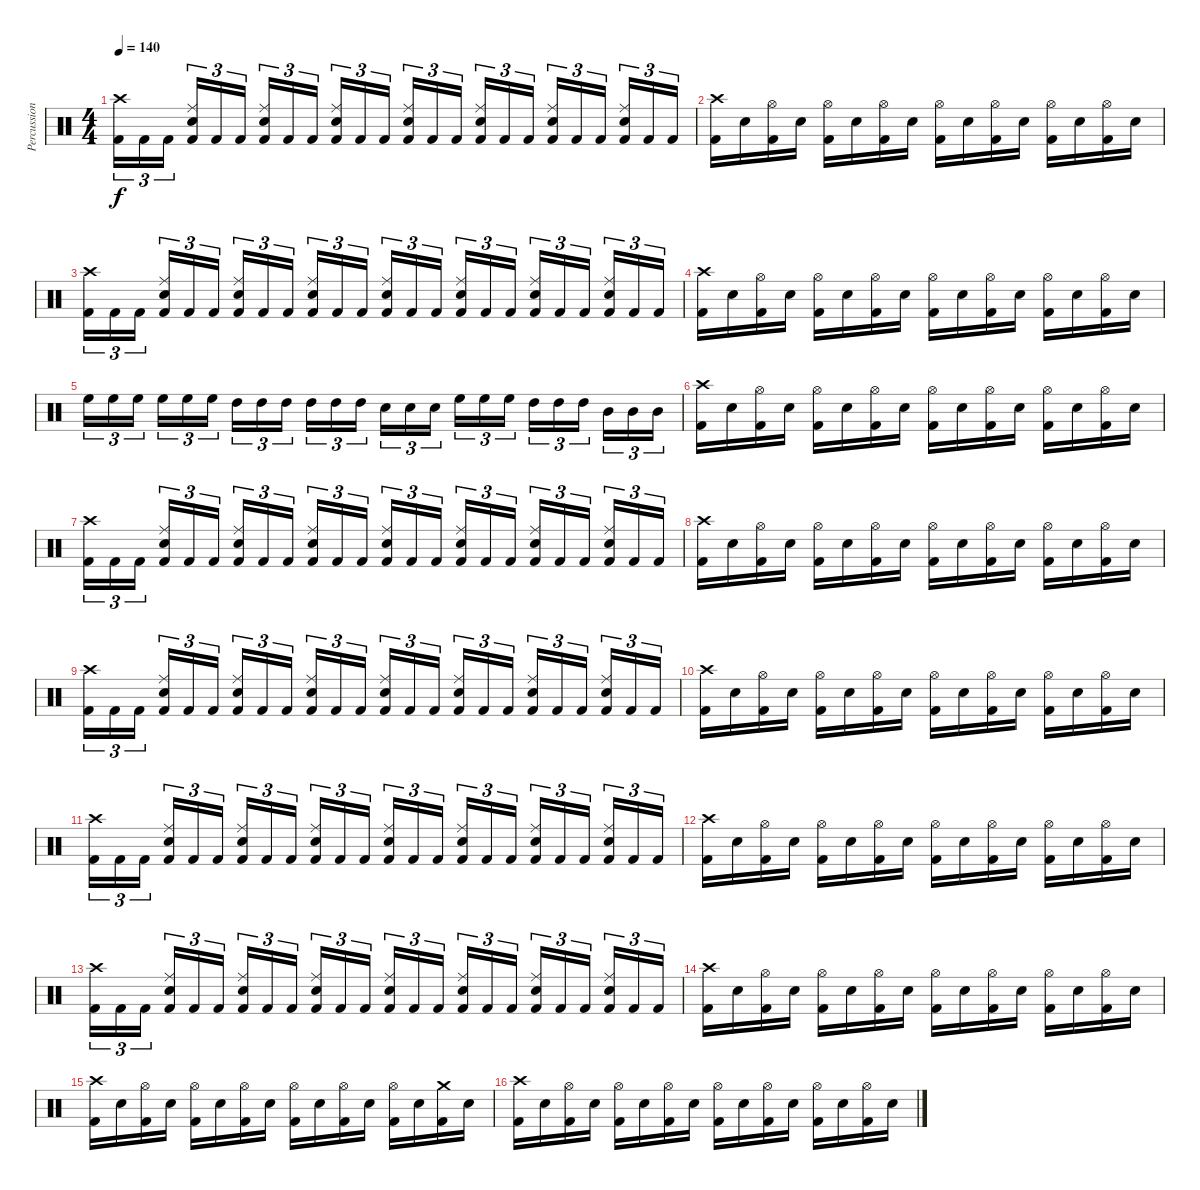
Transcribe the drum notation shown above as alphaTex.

\track ("Percussion" "Percussion") {instrument percussion}
\staff {score}
\articulation defaults
\ts (4 4)
\tempo 140
\clef neutral
\ks c
("Crash high (hit)" "Kick (hit) 2").16{tu (3 2) dy f} "Kick (hit) 2".16{tu (3 2)} "Kick (hit) 2".16{tu (3 2)} ("Ride (middle)" "Electric Snare (hit)" "Kick (hit) 2").16{tu (3 2)} "Kick (hit) 2".16{tu (3 2)} "Kick (hit) 2".16{tu (3 2)} ("Ride (middle)" "Electric Snare (hit)" "Kick (hit) 2").16{tu (3 2)} "Kick (hit) 2".16{tu (3 2)} "Kick (hit) 2".16{tu (3 2)} ("Ride (middle)" "Electric Snare (hit)" "Kick (hit) 2").16{tu (3 2)} "Kick (hit) 2".16{tu (3 2)} "Kick (hit) 2".16{tu (3 2)} ("Ride (middle)" "Electric Snare (hit)" "Kick (hit) 2").16{tu (3 2)} "Kick (hit) 2".16{tu (3 2)} "Kick (hit) 2".16{tu (3 2)} ("Ride (middle)" "Electric Snare (hit)" "Kick (hit) 2").16{tu (3 2)} "Kick (hit) 2".16{tu (3 2)} "Kick (hit) 2".16{tu (3 2)} ("Ride (middle)" "Electric Snare (hit)" "Kick (hit) 2").16{tu (3 2)} "Kick (hit) 2".16{tu (3 2)} "Kick (hit) 2".16{tu (3 2)} ("Ride (middle)" "Electric Snare (hit)" "Kick (hit) 2").16{tu (3 2)} "Kick (hit) 2".16{tu (3 2)} "Kick (hit) 2".16{tu (3 2)} |
("Crash high (hit)" "Kick (hit) 2").16 "Electric Snare (hit)".16 ("Hi-Hat (open)" "Kick (hit) 2").16 "Electric Snare (hit)".16 ("Hi-Hat (open)" "Kick (hit) 2").16 "Electric Snare (hit)".16 ("Hi-Hat (open)" "Kick (hit) 2").16 "Electric Snare (hit)".16 ("Hi-Hat (open)" "Kick (hit) 2").16 "Electric Snare (hit)".16 ("Hi-Hat (open)" "Kick (hit) 2").16 "Electric Snare (hit)".16 ("Hi-Hat (open)" "Kick (hit) 2").16 "Electric Snare (hit)".16 ("Hi-Hat (open)" "Kick (hit) 2").16 "Electric Snare (hit)".16 |
("Crash high (hit)" "Kick (hit) 2").16{tu (3 2)} "Kick (hit) 2".16{tu (3 2)} "Kick (hit) 2".16{tu (3 2)} ("Ride (middle)" "Electric Snare (hit)" "Kick (hit) 2").16{tu (3 2)} "Kick (hit) 2".16{tu (3 2)} "Kick (hit) 2".16{tu (3 2)} ("Ride (middle)" "Electric Snare (hit)" "Kick (hit) 2").16{tu (3 2)} "Kick (hit) 2".16{tu (3 2)} "Kick (hit) 2".16{tu (3 2)} ("Ride (middle)" "Electric Snare (hit)" "Kick (hit) 2").16{tu (3 2)} "Kick (hit) 2".16{tu (3 2)} "Kick (hit) 2".16{tu (3 2)} ("Ride (middle)" "Electric Snare (hit)" "Kick (hit) 2").16{tu (3 2)} "Kick (hit) 2".16{tu (3 2)} "Kick (hit) 2".16{tu (3 2)} ("Ride (middle)" "Electric Snare (hit)" "Kick (hit) 2").16{tu (3 2)} "Kick (hit) 2".16{tu (3 2)} "Kick (hit) 2".16{tu (3 2)} ("Ride (middle)" "Electric Snare (hit)" "Kick (hit) 2").16{tu (3 2)} "Kick (hit) 2".16{tu (3 2)} "Kick (hit) 2".16{tu (3 2)} ("Ride (middle)" "Electric Snare (hit)" "Kick (hit) 2").16{tu (3 2)} "Kick (hit) 2".16{tu (3 2)} "Kick (hit) 2".16{tu (3 2)} |
("Crash high (hit)" "Kick (hit) 2").16 "Electric Snare (hit)".16 ("Hi-Hat (open)" "Kick (hit) 2").16 "Electric Snare (hit)".16 ("Hi-Hat (open)" "Kick (hit) 2").16 "Electric Snare (hit)".16 ("Hi-Hat (open)" "Kick (hit) 2").16 "Electric Snare (hit)".16 ("Hi-Hat (open)" "Kick (hit) 2").16 "Electric Snare (hit)".16 ("Hi-Hat (open)" "Kick (hit) 2").16 "Electric Snare (hit)".16 ("Hi-Hat (open)" "Kick (hit) 2").16 "Electric Snare (hit)".16 ("Hi-Hat (open)" "Kick (hit) 2").16 "Electric Snare (hit)".16 |
"High Floor Tom (hit)".16{tu (3 2)} "High Floor Tom (hit)".16{tu (3 2)} "High Floor Tom (hit)".16{tu (3 2)} "High Floor Tom (hit)".16{tu (3 2)} "High Floor Tom (hit)".16{tu (3 2)} "High Floor Tom (hit)".16{tu (3 2)} "High Tom (hit)".16{tu (3 2)} "High Tom (hit)".16{tu (3 2)} "High Tom (hit)".16{tu (3 2)} "High Tom (hit)".16{tu (3 2)} "High Tom (hit)".16{tu (3 2)} "High Tom (hit)".16{tu (3 2)} "Electric Snare (hit)".16{tu (3 2)} "Electric Snare (hit)".16{tu (3 2)} "Electric Snare (hit)".16{tu (3 2)} "High Floor Tom (hit)".16{tu (3 2)} "High Floor Tom (hit)".16{tu (3 2)} "High Floor Tom (hit)".16{tu (3 2)} "High Tom (hit)".16{tu (3 2)} "High Tom (hit)".16{tu (3 2)} "High Tom (hit)".16{tu (3 2)} "Mid Tom (hit)".16{tu (3 2)} "Mid Tom (hit)".16{tu (3 2)} "Mid Tom (hit)".16{tu (3 2)} |
("Crash high (hit)" "Kick (hit) 2").16 "Electric Snare (hit)".16 ("Hi-Hat (open)" "Kick (hit) 2").16 "Electric Snare (hit)".16 ("Hi-Hat (open)" "Kick (hit) 2").16 "Electric Snare (hit)".16 ("Hi-Hat (open)" "Kick (hit) 2").16 "Electric Snare (hit)".16 ("Hi-Hat (open)" "Kick (hit) 2").16 "Electric Snare (hit)".16 ("Hi-Hat (open)" "Kick (hit) 2").16 "Electric Snare (hit)".16 ("Hi-Hat (open)" "Kick (hit) 2").16 "Electric Snare (hit)".16 ("Hi-Hat (open)" "Kick (hit) 2").16 "Electric Snare (hit)".16 |
("Crash high (hit)" "Kick (hit) 2").16{tu (3 2)} "Kick (hit) 2".16{tu (3 2)} "Kick (hit) 2".16{tu (3 2)} ("Ride (middle)" "Electric Snare (hit)" "Kick (hit) 2").16{tu (3 2)} "Kick (hit) 2".16{tu (3 2)} "Kick (hit) 2".16{tu (3 2)} ("Ride (middle)" "Electric Snare (hit)" "Kick (hit) 2").16{tu (3 2)} "Kick (hit) 2".16{tu (3 2)} "Kick (hit) 2".16{tu (3 2)} ("Ride (middle)" "Electric Snare (hit)" "Kick (hit) 2").16{tu (3 2)} "Kick (hit) 2".16{tu (3 2)} "Kick (hit) 2".16{tu (3 2)} ("Ride (middle)" "Electric Snare (hit)" "Kick (hit) 2").16{tu (3 2)} "Kick (hit) 2".16{tu (3 2)} "Kick (hit) 2".16{tu (3 2)} ("Ride (middle)" "Electric Snare (hit)" "Kick (hit) 2").16{tu (3 2)} "Kick (hit) 2".16{tu (3 2)} "Kick (hit) 2".16{tu (3 2)} ("Ride (middle)" "Electric Snare (hit)" "Kick (hit) 2").16{tu (3 2)} "Kick (hit) 2".16{tu (3 2)} "Kick (hit) 2".16{tu (3 2)} ("Ride (middle)" "Electric Snare (hit)" "Kick (hit) 2").16{tu (3 2)} "Kick (hit) 2".16{tu (3 2)} "Kick (hit) 2".16{tu (3 2)} |
("Crash high (hit)" "Kick (hit) 2").16 "Electric Snare (hit)".16 ("Hi-Hat (open)" "Kick (hit) 2").16 "Electric Snare (hit)".16 ("Hi-Hat (open)" "Kick (hit) 2").16 "Electric Snare (hit)".16 ("Hi-Hat (open)" "Kick (hit) 2").16 "Electric Snare (hit)".16 ("Hi-Hat (open)" "Kick (hit) 2").16 "Electric Snare (hit)".16 ("Hi-Hat (open)" "Kick (hit) 2").16 "Electric Snare (hit)".16 ("Hi-Hat (open)" "Kick (hit) 2").16 "Electric Snare (hit)".16 ("Hi-Hat (open)" "Kick (hit) 2").16 "Electric Snare (hit)".16 |
("Crash high (hit)" "Kick (hit) 2").16{tu (3 2)} "Kick (hit) 2".16{tu (3 2)} "Kick (hit) 2".16{tu (3 2)} ("Ride (middle)" "Electric Snare (hit)" "Kick (hit) 2").16{tu (3 2)} "Kick (hit) 2".16{tu (3 2)} "Kick (hit) 2".16{tu (3 2)} ("Ride (middle)" "Electric Snare (hit)" "Kick (hit) 2").16{tu (3 2)} "Kick (hit) 2".16{tu (3 2)} "Kick (hit) 2".16{tu (3 2)} ("Ride (middle)" "Electric Snare (hit)" "Kick (hit) 2").16{tu (3 2)} "Kick (hit) 2".16{tu (3 2)} "Kick (hit) 2".16{tu (3 2)} ("Ride (middle)" "Electric Snare (hit)" "Kick (hit) 2").16{tu (3 2)} "Kick (hit) 2".16{tu (3 2)} "Kick (hit) 2".16{tu (3 2)} ("Ride (middle)" "Electric Snare (hit)" "Kick (hit) 2").16{tu (3 2)} "Kick (hit) 2".16{tu (3 2)} "Kick (hit) 2".16{tu (3 2)} ("Ride (middle)" "Electric Snare (hit)" "Kick (hit) 2").16{tu (3 2)} "Kick (hit) 2".16{tu (3 2)} "Kick (hit) 2".16{tu (3 2)} ("Ride (middle)" "Electric Snare (hit)" "Kick (hit) 2").16{tu (3 2)} "Kick (hit) 2".16{tu (3 2)} "Kick (hit) 2".16{tu (3 2)} |
("Crash high (hit)" "Kick (hit) 2").16 "Electric Snare (hit)".16 ("Hi-Hat (open)" "Kick (hit) 2").16 "Electric Snare (hit)".16 ("Hi-Hat (open)" "Kick (hit) 2").16 "Electric Snare (hit)".16 ("Hi-Hat (open)" "Kick (hit) 2").16 "Electric Snare (hit)".16 ("Hi-Hat (open)" "Kick (hit) 2").16 "Electric Snare (hit)".16 ("Hi-Hat (open)" "Kick (hit) 2").16 "Electric Snare (hit)".16 ("Hi-Hat (open)" "Kick (hit) 2").16 "Electric Snare (hit)".16 ("Hi-Hat (open)" "Kick (hit) 2").16 "Electric Snare (hit)".16 |
("Crash high (hit)" "Kick (hit) 2").16{tu (3 2)} "Kick (hit) 2".16{tu (3 2)} "Kick (hit) 2".16{tu (3 2)} ("Ride (middle)" "Electric Snare (hit)" "Kick (hit) 2").16{tu (3 2)} "Kick (hit) 2".16{tu (3 2)} "Kick (hit) 2".16{tu (3 2)} ("Ride (middle)" "Electric Snare (hit)" "Kick (hit) 2").16{tu (3 2)} "Kick (hit) 2".16{tu (3 2)} "Kick (hit) 2".16{tu (3 2)} ("Ride (middle)" "Electric Snare (hit)" "Kick (hit) 2").16{tu (3 2)} "Kick (hit) 2".16{tu (3 2)} "Kick (hit) 2".16{tu (3 2)} ("Ride (middle)" "Electric Snare (hit)" "Kick (hit) 2").16{tu (3 2)} "Kick (hit) 2".16{tu (3 2)} "Kick (hit) 2".16{tu (3 2)} ("Ride (middle)" "Electric Snare (hit)" "Kick (hit) 2").16{tu (3 2)} "Kick (hit) 2".16{tu (3 2)} "Kick (hit) 2".16{tu (3 2)} ("Ride (middle)" "Electric Snare (hit)" "Kick (hit) 2").16{tu (3 2)} "Kick (hit) 2".16{tu (3 2)} "Kick (hit) 2".16{tu (3 2)} ("Ride (middle)" "Electric Snare (hit)" "Kick (hit) 2").16{tu (3 2)} "Kick (hit) 2".16{tu (3 2)} "Kick (hit) 2".16{tu (3 2)} |
("Crash high (hit)" "Kick (hit) 2").16 "Electric Snare (hit)".16 ("Hi-Hat (open)" "Kick (hit) 2").16 "Electric Snare (hit)".16 ("Hi-Hat (open)" "Kick (hit) 2").16 "Electric Snare (hit)".16 ("Hi-Hat (open)" "Kick (hit) 2").16 "Electric Snare (hit)".16 ("Hi-Hat (open)" "Kick (hit) 2").16 "Electric Snare (hit)".16 ("Hi-Hat (open)" "Kick (hit) 2").16 "Electric Snare (hit)".16 ("Hi-Hat (open)" "Kick (hit) 2").16 "Electric Snare (hit)".16 ("Hi-Hat (open)" "Kick (hit) 2").16 "Electric Snare (hit)".16 |
("Crash high (hit)" "Kick (hit) 2").16{tu (3 2)} "Kick (hit) 2".16{tu (3 2)} "Kick (hit) 2".16{tu (3 2)} ("Ride (middle)" "Electric Snare (hit)" "Kick (hit) 2").16{tu (3 2)} "Kick (hit) 2".16{tu (3 2)} "Kick (hit) 2".16{tu (3 2)} ("Ride (middle)" "Electric Snare (hit)" "Kick (hit) 2").16{tu (3 2)} "Kick (hit) 2".16{tu (3 2)} "Kick (hit) 2".16{tu (3 2)} ("Ride (middle)" "Electric Snare (hit)" "Kick (hit) 2").16{tu (3 2)} "Kick (hit) 2".16{tu (3 2)} "Kick (hit) 2".16{tu (3 2)} ("Ride (middle)" "Electric Snare (hit)" "Kick (hit) 2").16{tu (3 2)} "Kick (hit) 2".16{tu (3 2)} "Kick (hit) 2".16{tu (3 2)} ("Ride (middle)" "Electric Snare (hit)" "Kick (hit) 2").16{tu (3 2)} "Kick (hit) 2".16{tu (3 2)} "Kick (hit) 2".16{tu (3 2)} ("Ride (middle)" "Electric Snare (hit)" "Kick (hit) 2").16{tu (3 2)} "Kick (hit) 2".16{tu (3 2)} "Kick (hit) 2".16{tu (3 2)} ("Ride (middle)" "Electric Snare (hit)" "Kick (hit) 2").16{tu (3 2)} "Kick (hit) 2".16{tu (3 2)} "Kick (hit) 2".16{tu (3 2)} |
("Crash high (hit)" "Kick (hit) 2").16 "Electric Snare (hit)".16 ("Hi-Hat (open)" "Kick (hit) 2").16 "Electric Snare (hit)".16 ("Hi-Hat (open)" "Kick (hit) 2").16 "Electric Snare (hit)".16 ("Hi-Hat (open)" "Kick (hit) 2").16 "Electric Snare (hit)".16 ("Hi-Hat (open)" "Kick (hit) 2").16 "Electric Snare (hit)".16 ("Hi-Hat (open)" "Kick (hit) 2").16 "Electric Snare (hit)".16 ("Hi-Hat (open)" "Kick (hit) 2").16 "Electric Snare (hit)".16 ("Hi-Hat (open)" "Kick (hit) 2").16 "Electric Snare (hit)".16 |
("Crash high (hit)" "Kick (hit) 2").16 "Electric Snare (hit)".16 ("Hi-Hat (open)" "Kick (hit) 2").16 "Electric Snare (hit)".16 ("Hi-Hat (open)" "Kick (hit) 2").16 "Electric Snare (hit)".16 ("Hi-Hat (open)" "Kick (hit) 2").16 "Electric Snare (hit)".16 ("Hi-Hat (open)" "Kick (hit) 2").16 "Electric Snare (hit)".16 ("Hi-Hat (open)" "Kick (hit) 2").16 "Electric Snare (hit)".16 ("Hi-Hat (open)" "Kick (hit) 2").16 "Electric Snare (hit)".16 ("Crash medium (hit)" "Kick (hit) 2").16 "Electric Snare (hit)".16 |
("Crash high (hit)" "Kick (hit) 2").16 "Electric Snare (hit)".16 ("Hi-Hat (open)" "Kick (hit) 2").16 "Electric Snare (hit)".16 ("Hi-Hat (open)" "Kick (hit) 2").16 "Electric Snare (hit)".16 ("Hi-Hat (open)" "Kick (hit) 2").16 "Electric Snare (hit)".16 ("Hi-Hat (open)" "Kick (hit) 2").16 "Electric Snare (hit)".16 ("Hi-Hat (open)" "Kick (hit) 2").16 "Electric Snare (hit)".16 ("Hi-Hat (open)" "Kick (hit) 2").16 "Electric Snare (hit)".16 ("Hi-Hat (open)" "Kick (hit) 2").16 "Electric Snare (hit)".16
